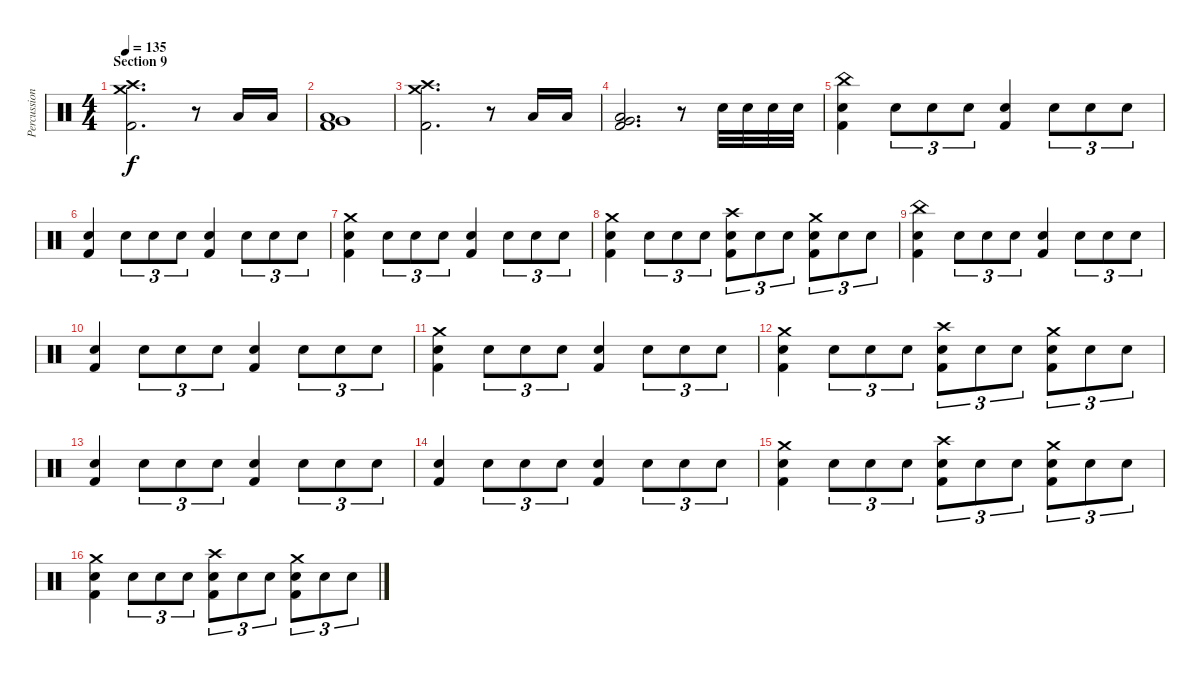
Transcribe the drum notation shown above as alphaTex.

\track ("Percussion" "Percussion") {instrument percussion}
\staff {score}
\articulation defaults
\ts (4 4)
\section ("" "Section 9")
\tempo 135
\clef neutral
\ks c
("Crash high (hit)" "Crash medium (hit)" "Kick (hit) 2").2{d dy f} r.8 "Low Tom (hit)".16 "Low Tom (hit)".16 |
("Very Low Tom (hit)" "Low Floor Tom (hit)" "Kick (hit) 2").1 |
("Crash high (hit)" "Crash medium (hit)" "Kick (hit) 2").2{d} r.8 "Low Tom (hit)".16 "Low Tom (hit)".16 |
("Very Low Tom (hit)" "Low Floor Tom (hit)" "Kick (hit) 2").2{d} r.8 "Electric Snare (hit)".32 "Electric Snare (hit)".32 "Electric Snare (hit)".32 "Electric Snare (hit)".32 |
("China (hit)" "Electric Snare (hit)" "Kick (hit) 2").4 "Electric Snare (hit)".8{tu (3 2)} "Electric Snare (hit)".8{tu (3 2)} "Electric Snare (hit)".8{tu (3 2)} ("Electric Snare (hit)" "Kick (hit) 2").4 "Electric Snare (hit)".8{tu (3 2)} "Electric Snare (hit)".8{tu (3 2)} "Electric Snare (hit)".8{tu (3 2)} |
("Electric Snare (hit)" "Kick (hit) 2").4 "Electric Snare (hit)".8{tu (3 2)} "Electric Snare (hit)".8{tu (3 2)} "Electric Snare (hit)".8{tu (3 2)} ("Electric Snare (hit)" "Kick (hit) 2").4 "Electric Snare (hit)".8{tu (3 2)} "Electric Snare (hit)".8{tu (3 2)} "Electric Snare (hit)".8{tu (3 2)} |
("Crash medium (hit)" "Electric Snare (hit)" "Kick (hit) 2").4 "Electric Snare (hit)".8{tu (3 2)} "Electric Snare (hit)".8{tu (3 2)} "Electric Snare (hit)".8{tu (3 2)} ("Electric Snare (hit)" "Kick (hit) 2").4 "Electric Snare (hit)".8{tu (3 2)} "Electric Snare (hit)".8{tu (3 2)} "Electric Snare (hit)".8{tu (3 2)} |
("Crash medium (hit)" "Electric Snare (hit)" "Kick (hit) 2").4 "Electric Snare (hit)".8{tu (3 2)} "Electric Snare (hit)".8{tu (3 2)} "Electric Snare (hit)".8{tu (3 2)} ("Crash high (hit)" "Electric Snare (hit)" "Kick (hit) 2").8{tu (3 2)} "Electric Snare (hit)".8{tu (3 2)} "Electric Snare (hit)".8{tu (3 2)} ("Crash medium (hit)" "Electric Snare (hit)" "Kick (hit) 2").8{tu (3 2)} "Electric Snare (hit)".8{tu (3 2)} "Electric Snare (hit)".8{tu (3 2)} |
("China (hit)" "Electric Snare (hit)" "Kick (hit) 2").4 "Electric Snare (hit)".8{tu (3 2)} "Electric Snare (hit)".8{tu (3 2)} "Electric Snare (hit)".8{tu (3 2)} ("Electric Snare (hit)" "Kick (hit) 2").4 "Electric Snare (hit)".8{tu (3 2)} "Electric Snare (hit)".8{tu (3 2)} "Electric Snare (hit)".8{tu (3 2)} |
("Electric Snare (hit)" "Kick (hit) 2").4 "Electric Snare (hit)".8{tu (3 2)} "Electric Snare (hit)".8{tu (3 2)} "Electric Snare (hit)".8{tu (3 2)} ("Electric Snare (hit)" "Kick (hit) 2").4 "Electric Snare (hit)".8{tu (3 2)} "Electric Snare (hit)".8{tu (3 2)} "Electric Snare (hit)".8{tu (3 2)} |
("Crash medium (hit)" "Electric Snare (hit)" "Kick (hit) 2").4 "Electric Snare (hit)".8{tu (3 2)} "Electric Snare (hit)".8{tu (3 2)} "Electric Snare (hit)".8{tu (3 2)} ("Electric Snare (hit)" "Kick (hit) 2").4 "Electric Snare (hit)".8{tu (3 2)} "Electric Snare (hit)".8{tu (3 2)} "Electric Snare (hit)".8{tu (3 2)} |
("Crash medium (hit)" "Electric Snare (hit)" "Kick (hit) 2").4 "Electric Snare (hit)".8{tu (3 2)} "Electric Snare (hit)".8{tu (3 2)} "Electric Snare (hit)".8{tu (3 2)} ("Crash high (hit)" "Electric Snare (hit)" "Kick (hit) 2").8{tu (3 2)} "Electric Snare (hit)".8{tu (3 2)} "Electric Snare (hit)".8{tu (3 2)} ("Crash medium (hit)" "Electric Snare (hit)" "Kick (hit) 2").8{tu (3 2)} "Electric Snare (hit)".8{tu (3 2)} "Electric Snare (hit)".8{tu (3 2)} |
("Electric Snare (hit)" "Kick (hit) 2").4 "Electric Snare (hit)".8{tu (3 2)} "Electric Snare (hit)".8{tu (3 2)} "Electric Snare (hit)".8{tu (3 2)} ("Electric Snare (hit)" "Kick (hit) 2").4 "Electric Snare (hit)".8{tu (3 2)} "Electric Snare (hit)".8{tu (3 2)} "Electric Snare (hit)".8{tu (3 2)} |
("Electric Snare (hit)" "Kick (hit) 2").4 "Electric Snare (hit)".8{tu (3 2)} "Electric Snare (hit)".8{tu (3 2)} "Electric Snare (hit)".8{tu (3 2)} ("Electric Snare (hit)" "Kick (hit) 2").4 "Electric Snare (hit)".8{tu (3 2)} "Electric Snare (hit)".8{tu (3 2)} "Electric Snare (hit)".8{tu (3 2)} |
("Crash medium (hit)" "Electric Snare (hit)" "Kick (hit) 2").4 "Electric Snare (hit)".8{tu (3 2)} "Electric Snare (hit)".8{tu (3 2)} "Electric Snare (hit)".8{tu (3 2)} ("Crash high (hit)" "Electric Snare (hit)" "Kick (hit) 2").8{tu (3 2)} "Electric Snare (hit)".8{tu (3 2)} "Electric Snare (hit)".8{tu (3 2)} ("Crash medium (hit)" "Electric Snare (hit)" "Kick (hit) 2").8{tu (3 2)} "Electric Snare (hit)".8{tu (3 2)} "Electric Snare (hit)".8{tu (3 2)} |
("Crash medium (hit)" "Electric Snare (hit)" "Kick (hit) 2").4 "Electric Snare (hit)".8{tu (3 2)} "Electric Snare (hit)".8{tu (3 2)} "Electric Snare (hit)".8{tu (3 2)} ("Crash high (hit)" "Electric Snare (hit)" "Kick (hit) 2").8{tu (3 2)} "Electric Snare (hit)".8{tu (3 2)} "Electric Snare (hit)".8{tu (3 2)} ("Crash medium (hit)" "Electric Snare (hit)" "Kick (hit) 2").8{tu (3 2)} "Electric Snare (hit)".8{tu (3 2)} "Electric Snare (hit)".8{tu (3 2)}
